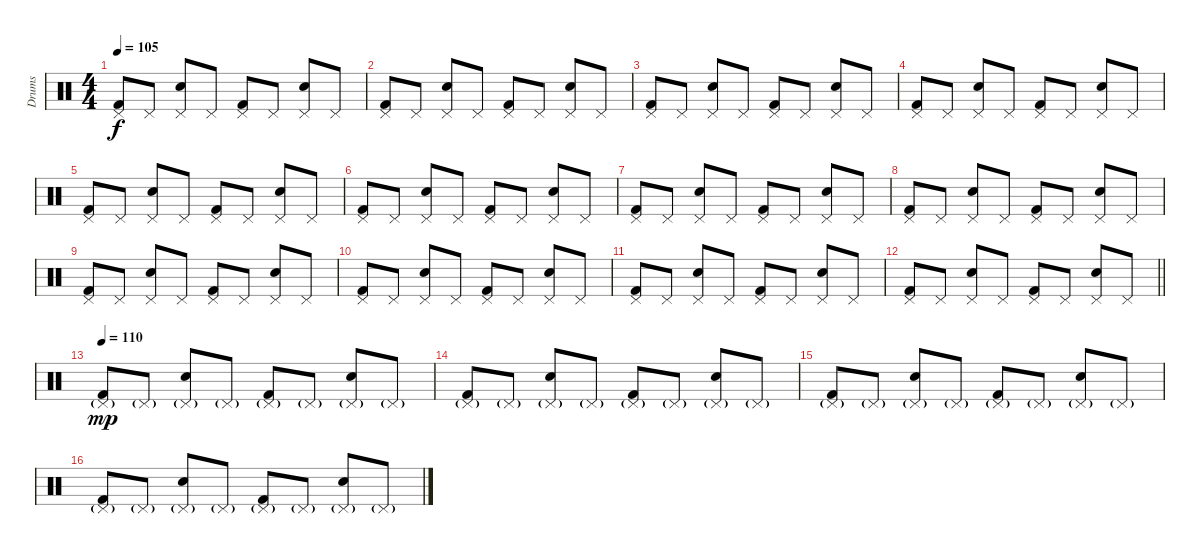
\track ("Drums" "Drums") {instrument percussion}
\staff {score}
\articulation defaults
\ts (4 4)
\tempo 105
\clef neutral
\ks c
("Pedal Hi-Hat (hit)" "Kick (hit) 2").8{dy f} "Pedal Hi-Hat (hit)".8 ("Pedal Hi-Hat (hit)" "Snare (hit) 2").8 "Pedal Hi-Hat (hit)".8 ("Pedal Hi-Hat (hit)" "Kick (hit) 2").8 "Pedal Hi-Hat (hit)".8 ("Pedal Hi-Hat (hit)" "Snare (hit) 2").8 "Pedal Hi-Hat (hit)".8 |
("Pedal Hi-Hat (hit)" "Kick (hit) 2").8 "Pedal Hi-Hat (hit)".8 ("Pedal Hi-Hat (hit)" "Snare (hit) 2").8 "Pedal Hi-Hat (hit)".8 ("Pedal Hi-Hat (hit)" "Kick (hit) 2").8 "Pedal Hi-Hat (hit)".8 ("Pedal Hi-Hat (hit)" "Snare (hit) 2").8 "Pedal Hi-Hat (hit)".8 |
("Pedal Hi-Hat (hit)" "Kick (hit) 2").8 "Pedal Hi-Hat (hit)".8 ("Pedal Hi-Hat (hit)" "Snare (hit) 2").8 "Pedal Hi-Hat (hit)".8 ("Pedal Hi-Hat (hit)" "Kick (hit) 2").8 "Pedal Hi-Hat (hit)".8 ("Pedal Hi-Hat (hit)" "Snare (hit) 2").8 "Pedal Hi-Hat (hit)".8 |
("Pedal Hi-Hat (hit)" "Kick (hit) 2").8 "Pedal Hi-Hat (hit)".8 ("Pedal Hi-Hat (hit)" "Snare (hit) 2").8 "Pedal Hi-Hat (hit)".8 ("Pedal Hi-Hat (hit)" "Kick (hit) 2").8 "Pedal Hi-Hat (hit)".8 ("Pedal Hi-Hat (hit)" "Snare (hit) 2").8 "Pedal Hi-Hat (hit)".8 |
("Pedal Hi-Hat (hit)" "Kick (hit) 2").8 "Pedal Hi-Hat (hit)".8 ("Pedal Hi-Hat (hit)" "Snare (hit) 2").8 "Pedal Hi-Hat (hit)".8 ("Pedal Hi-Hat (hit)" "Kick (hit) 2").8 "Pedal Hi-Hat (hit)".8 ("Pedal Hi-Hat (hit)" "Snare (hit) 2").8 "Pedal Hi-Hat (hit)".8 |
("Pedal Hi-Hat (hit)" "Kick (hit) 2").8 "Pedal Hi-Hat (hit)".8 ("Pedal Hi-Hat (hit)" "Snare (hit) 2").8 "Pedal Hi-Hat (hit)".8 ("Pedal Hi-Hat (hit)" "Kick (hit) 2").8 "Pedal Hi-Hat (hit)".8 ("Pedal Hi-Hat (hit)" "Snare (hit) 2").8 "Pedal Hi-Hat (hit)".8 |
("Pedal Hi-Hat (hit)" "Kick (hit) 2").8 "Pedal Hi-Hat (hit)".8 ("Pedal Hi-Hat (hit)" "Snare (hit) 2").8 "Pedal Hi-Hat (hit)".8 ("Pedal Hi-Hat (hit)" "Kick (hit) 2").8 "Pedal Hi-Hat (hit)".8 ("Pedal Hi-Hat (hit)" "Snare (hit) 2").8 "Pedal Hi-Hat (hit)".8 |
("Pedal Hi-Hat (hit)" "Kick (hit) 2").8 "Pedal Hi-Hat (hit)".8 ("Pedal Hi-Hat (hit)" "Snare (hit) 2").8 "Pedal Hi-Hat (hit)".8 ("Pedal Hi-Hat (hit)" "Kick (hit) 2").8 "Pedal Hi-Hat (hit)".8 ("Pedal Hi-Hat (hit)" "Snare (hit) 2").8 "Pedal Hi-Hat (hit)".8 |
("Pedal Hi-Hat (hit)" "Kick (hit) 2").8 "Pedal Hi-Hat (hit)".8 ("Pedal Hi-Hat (hit)" "Snare (hit) 2").8 "Pedal Hi-Hat (hit)".8 ("Pedal Hi-Hat (hit)" "Kick (hit) 2").8 "Pedal Hi-Hat (hit)".8 ("Pedal Hi-Hat (hit)" "Snare (hit) 2").8 "Pedal Hi-Hat (hit)".8 |
("Pedal Hi-Hat (hit)" "Kick (hit) 2").8 "Pedal Hi-Hat (hit)".8 ("Pedal Hi-Hat (hit)" "Snare (hit) 2").8 "Pedal Hi-Hat (hit)".8 ("Pedal Hi-Hat (hit)" "Kick (hit) 2").8 "Pedal Hi-Hat (hit)".8 ("Pedal Hi-Hat (hit)" "Snare (hit) 2").8 "Pedal Hi-Hat (hit)".8 |
("Pedal Hi-Hat (hit)" "Kick (hit) 2").8 "Pedal Hi-Hat (hit)".8 ("Pedal Hi-Hat (hit)" "Snare (hit) 2").8 "Pedal Hi-Hat (hit)".8 ("Pedal Hi-Hat (hit)" "Kick (hit) 2").8 "Pedal Hi-Hat (hit)".8 ("Pedal Hi-Hat (hit)" "Snare (hit) 2").8 "Pedal Hi-Hat (hit)".8 |
\barLineRight lightlight
("Pedal Hi-Hat (hit)" "Kick (hit) 2").8 "Pedal Hi-Hat (hit)".8 ("Pedal Hi-Hat (hit)" "Snare (hit) 2").8 "Pedal Hi-Hat (hit)".8 ("Pedal Hi-Hat (hit)" "Kick (hit) 2").8 "Pedal Hi-Hat (hit)".8 ("Pedal Hi-Hat (hit)" "Snare (hit) 2").8 "Pedal Hi-Hat (hit)".8 |
\tempo 110
("Pedal Hi-Hat (hit)"{g} "Kick (hit) 2").8{dy mp} "Pedal Hi-Hat (hit)"{g}.8 ("Pedal Hi-Hat (hit)"{g} "Snare (hit) 2").8 "Pedal Hi-Hat (hit)"{g}.8 ("Pedal Hi-Hat (hit)"{g} "Kick (hit) 2").8 "Pedal Hi-Hat (hit)"{g}.8 ("Pedal Hi-Hat (hit)"{g} "Snare (hit) 2").8 "Pedal Hi-Hat (hit)"{g}.8 |
("Pedal Hi-Hat (hit)"{g} "Kick (hit) 2").8 "Pedal Hi-Hat (hit)"{g}.8 ("Pedal Hi-Hat (hit)"{g} "Snare (hit) 2").8 "Pedal Hi-Hat (hit)"{g}.8 ("Pedal Hi-Hat (hit)"{g} "Kick (hit) 2").8 "Pedal Hi-Hat (hit)"{g}.8 ("Pedal Hi-Hat (hit)"{g} "Snare (hit) 2").8 "Pedal Hi-Hat (hit)"{g}.8 |
("Pedal Hi-Hat (hit)"{g} "Kick (hit) 2").8 "Pedal Hi-Hat (hit)"{g}.8 ("Pedal Hi-Hat (hit)"{g} "Snare (hit) 2").8 "Pedal Hi-Hat (hit)"{g}.8 ("Pedal Hi-Hat (hit)"{g} "Kick (hit) 2").8 "Pedal Hi-Hat (hit)"{g}.8 ("Pedal Hi-Hat (hit)"{g} "Snare (hit) 2").8 "Pedal Hi-Hat (hit)"{g}.8 |
("Pedal Hi-Hat (hit)"{g} "Kick (hit) 2").8 "Pedal Hi-Hat (hit)"{g}.8 ("Pedal Hi-Hat (hit)"{g} "Snare (hit) 2").8 "Pedal Hi-Hat (hit)"{g}.8 ("Pedal Hi-Hat (hit)"{g} "Kick (hit) 2").8 "Pedal Hi-Hat (hit)"{g}.8 ("Pedal Hi-Hat (hit)"{g} "Snare (hit) 2").8 "Pedal Hi-Hat (hit)"{g}.8
